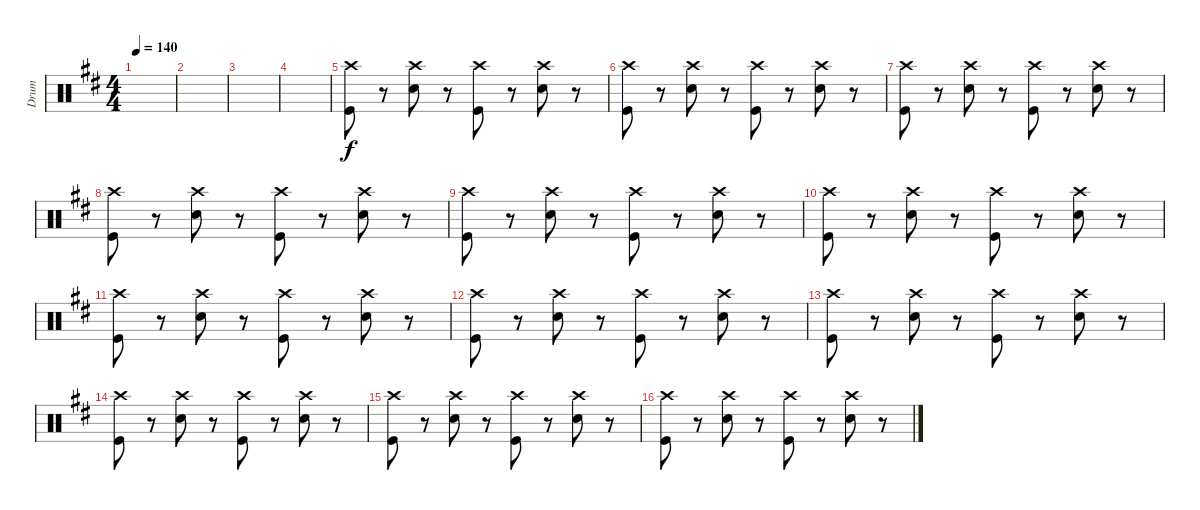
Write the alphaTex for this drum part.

\track ("Drum" "Drum") {instrument percussion}
\staff {score}
\articulation defaults
\ts (4 4)
\tempo 140
\clef neutral
\ks d
|
|
|
|
("Crash high (hit)" "Kick (hit)").8 r.8 ("Crash high (hit)" "Snare (hit) 2").8 r.8 ("Crash high (hit)" "Kick (hit)").8 r.8 ("Crash high (hit)" "Snare (hit) 2").8 r.8 |
("Crash high (hit)" "Kick (hit)").8 r.8 ("Crash high (hit)" "Snare (hit) 2").8 r.8 ("Crash high (hit)" "Kick (hit)").8 r.8 ("Crash high (hit)" "Snare (hit) 2").8 r.8 |
("Crash high (hit)" "Kick (hit)").8 r.8 ("Crash high (hit)" "Snare (hit) 2").8 r.8 ("Crash high (hit)" "Kick (hit)").8 r.8 ("Crash high (hit)" "Snare (hit) 2").8 r.8 |
("Crash high (hit)" "Kick (hit)").8 r.8 ("Crash high (hit)" "Snare (hit) 2").8 r.8 ("Crash high (hit)" "Kick (hit)").8 r.8 ("Crash high (hit)" "Snare (hit) 2").8 r.8 |
("Crash high (hit)" "Kick (hit)").8 r.8 ("Crash high (hit)" "Snare (hit) 2").8 r.8 ("Crash high (hit)" "Kick (hit)").8 r.8 ("Crash high (hit)" "Snare (hit) 2").8 r.8 |
("Crash high (hit)" "Kick (hit)").8 r.8 ("Crash high (hit)" "Snare (hit) 2").8 r.8 ("Crash high (hit)" "Kick (hit)").8 r.8 ("Crash high (hit)" "Snare (hit) 2").8 r.8 |
("Crash high (hit)" "Kick (hit)").8 r.8 ("Crash high (hit)" "Snare (hit) 2").8 r.8 ("Crash high (hit)" "Kick (hit)").8 r.8 ("Crash high (hit)" "Snare (hit) 2").8 r.8 |
("Crash high (hit)" "Kick (hit)").8 r.8 ("Crash high (hit)" "Snare (hit) 2").8 r.8 ("Crash high (hit)" "Kick (hit)").8 r.8 ("Crash high (hit)" "Snare (hit) 2").8 r.8 |
("Crash high (hit)" "Kick (hit)").8 r.8 ("Crash high (hit)" "Snare (hit) 2").8 r.8 ("Crash high (hit)" "Kick (hit)").8 r.8 ("Crash high (hit)" "Snare (hit) 2").8 r.8 |
("Crash high (hit)" "Kick (hit)").8 r.8 ("Crash high (hit)" "Snare (hit) 2").8 r.8 ("Crash high (hit)" "Kick (hit)").8 r.8 ("Crash high (hit)" "Snare (hit) 2").8 r.8 |
("Crash high (hit)" "Kick (hit)").8 r.8 ("Crash high (hit)" "Snare (hit) 2").8 r.8 ("Crash high (hit)" "Kick (hit)").8 r.8 ("Crash high (hit)" "Snare (hit) 2").8 r.8 |
("Crash high (hit)" "Kick (hit)").8 r.8 ("Crash high (hit)" "Snare (hit) 2").8 r.8 ("Crash high (hit)" "Kick (hit)").8 r.8 ("Crash high (hit)" "Snare (hit) 2").8 r.8
